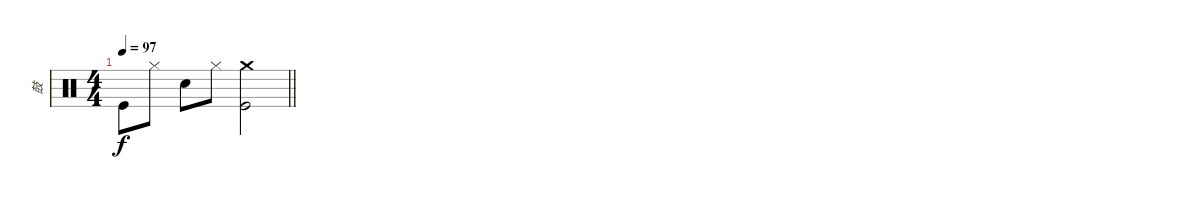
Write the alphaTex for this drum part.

\track ("鼓" "鼓") {instrument percussion}
\staff {score}
\articulation defaults
\ts (4 4)
\tempo 97
\clef neutral
\barLineRight lightlight
\ks c "Kick (hit)".8{dy f} "Hi-Hat (closed)".8 "Electric Snare (hit)".8 "Hi-Hat (closed)".8
("Crash medium (hit)" "Kick (hit)").2
